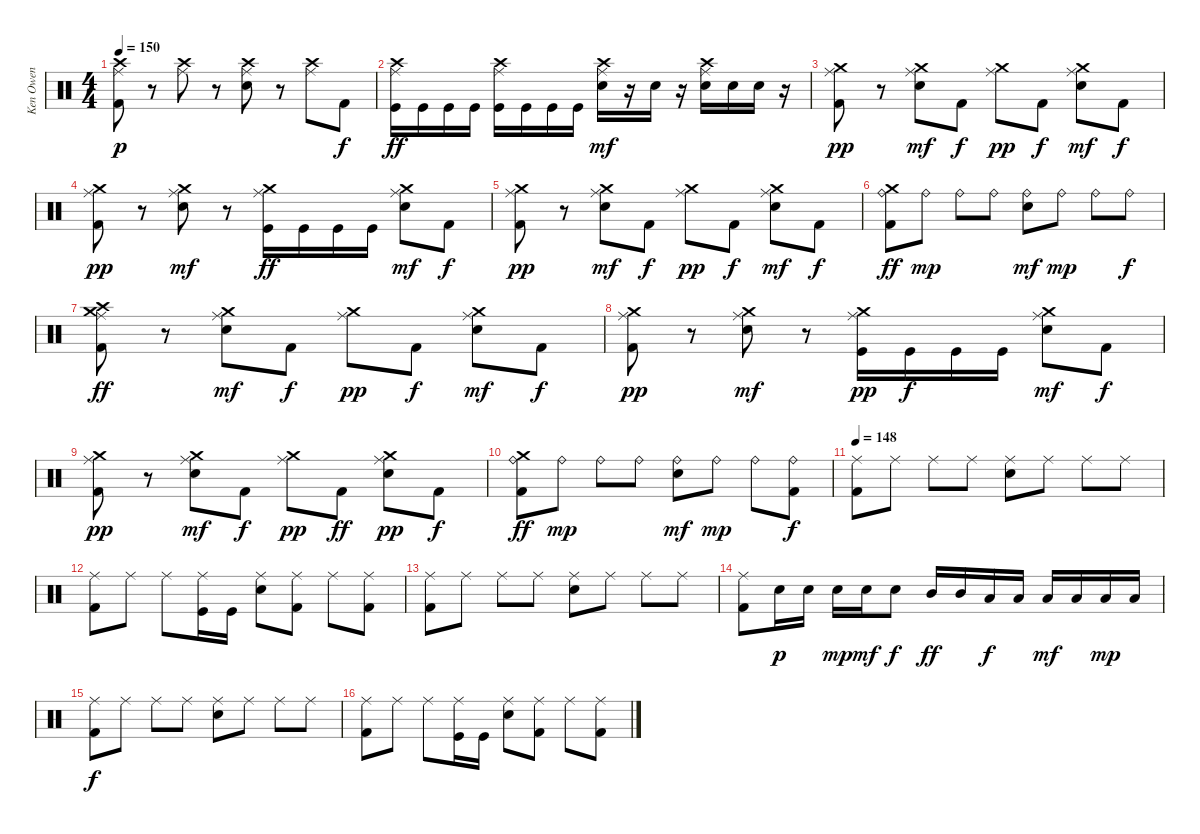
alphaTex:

\track ("Ken Owen" "Ken Owen") {instrument percussion}
\staff {score}
\articulation defaults
\ts (4 4)
\tempo 150
\clef neutral
\ks c
("Crash high (hit)" "Ride (middle)" "Kick (hit) 2").8{dy p} r.8 ("Crash high (hit)" "Ride (middle)").8 r.8 ("Crash high (hit)" "Ride (middle)" "Electric Snare (hit)").8 r.8 ("Crash high (hit)" "Ride (middle)").8 "Kick (hit) 2".8{dy f} |
("Crash high (hit)" "Ride (middle)" "Kick (hit)").16{dy ff} "Kick (hit)".16 "Kick (hit)".16 "Kick (hit)".16 ("Crash high (hit)" "Ride (middle)" "Kick (hit)").16 "Kick (hit)".16 "Kick (hit)".16 "Kick (hit)".16 ("Crash high (hit)" "Ride (middle)" "Electric Snare (hit)").16{dy mf} r.16 "Electric Snare (hit)".16 r.16 ("Crash high (hit)" "Ride (middle)" "Electric Snare (hit)").16 "Electric Snare (hit)".16 "Electric Snare (hit)".16 r.16 |
("Crash medium (hit)" "Ride (middle)" "Kick (hit) 2").8{dy pp} r.8 ("Crash medium (hit)" "Ride (middle)" "Electric Snare (hit)").8{dy mf} "Kick (hit) 2".8{dy f} ("Crash medium (hit)" "Ride (middle)").8{dy pp} "Kick (hit) 2".8{dy f} ("Crash medium (hit)" "Ride (middle)" "Electric Snare (hit)").8{dy mf} "Kick (hit) 2".8{dy f} |
("Crash medium (hit)" "Ride (middle)" "Kick (hit) 2").8{dy pp} r.8 ("Crash medium (hit)" "Ride (middle)" "Electric Snare (hit)").8{dy mf} r.8 ("Crash medium (hit)" "Ride (middle)" "Kick (hit)").16{dy ff} "Kick (hit)".16 "Kick (hit)".16 "Kick (hit)".16 ("Crash medium (hit)" "Ride (middle)" "Electric Snare (hit)").8{dy mf} "Kick (hit) 2".8{dy f} |
("Crash medium (hit)" "Ride (middle)" "Kick (hit) 2").8{dy pp} r.8 ("Crash medium (hit)" "Ride (middle)" "Electric Snare (hit)").8{dy mf} "Kick (hit) 2".8{dy f} ("Crash medium (hit)" "Ride (middle)").8{dy pp} "Kick (hit) 2".8{dy f} ("Crash medium (hit)" "Ride (middle)" "Electric Snare (hit)").8{dy mf} "Kick (hit) 2".8{dy f} |
("Ride (bell)" "Kick (hit) 2" "Crash medium (hit)").8{dy ff} "Ride (bell)".8{dy mp} "Ride (bell)".8 "Ride (bell)".8 ("Ride (bell)" "Electric Snare (hit)").8{dy mf} "Ride (bell)".8{dy mp} "Ride (bell)".8 "Ride (bell)".8{dy f} |
("Crash medium (hit)" "Ride (middle)" "Kick (hit) 2" "Crash high (hit)").8{dy ff} r.8 ("Crash medium (hit)" "Ride (middle)" "Electric Snare (hit)").8{dy mf} "Kick (hit) 2".8{dy f} ("Crash medium (hit)" "Ride (middle)").8{dy pp} "Kick (hit) 2".8{dy f} ("Crash medium (hit)" "Ride (middle)" "Electric Snare (hit)").8{dy mf} "Kick (hit) 2".8{dy f} |
("Crash medium (hit)" "Ride (middle)" "Kick (hit) 2").8{dy pp} r.8 ("Crash medium (hit)" "Ride (middle)" "Electric Snare (hit)").8{dy mf} r.8 ("Crash medium (hit)" "Ride (middle)" "Kick (hit)").16{dy pp} "Kick (hit)".16{dy f} "Kick (hit)".16 "Kick (hit)".16 ("Crash medium (hit)" "Ride (middle)" "Electric Snare (hit)").8{dy mf} "Kick (hit) 2".8{dy f} |
("Crash medium (hit)" "Ride (middle)" "Kick (hit) 2").8{dy pp} r.8 ("Crash medium (hit)" "Ride (middle)" "Electric Snare (hit)").8{dy mf} "Kick (hit) 2".8{dy f} ("Crash medium (hit)" "Ride (middle)").8{dy pp} "Kick (hit) 2".8{dy ff} ("Crash medium (hit)" "Ride (middle)" "Electric Snare (hit)").8{dy pp} "Kick (hit) 2".8{dy f} |
("Ride (bell)" "Kick (hit) 2" "Crash medium (hit)").8{dy ff} "Ride (bell)".8{dy mp} "Ride (bell)".8 "Ride (bell)".8 ("Ride (bell)" "Electric Snare (hit)").8{dy mf} "Ride (bell)".8{dy mp} "Ride (bell)".8 ("Ride (bell)" "Kick (hit) 2").8{dy f} |
\tempo 153
\tempo 148
("Ride (middle)" "Kick (hit) 2").8 "Ride (middle)".8 "Ride (middle)".8 "Ride (middle)".8 ("Ride (middle)" "Electric Snare (hit)").8 "Ride (middle)".8 "Ride (middle)".8 "Ride (middle)".8 |
("Ride (middle)" "Kick (hit) 2").8 "Ride (middle)".8 "Ride (middle)".8 ("Ride (middle)" "Kick (hit)").16 "Kick (hit)".16 ("Ride (middle)" "Electric Snare (hit)").8 ("Ride (middle)" "Kick (hit) 2").8 "Ride (middle)".8 ("Ride (middle)" "Kick (hit) 2").8 |
("Ride (middle)" "Kick (hit) 2").8 "Ride (middle)".8 "Ride (middle)".8 "Ride (middle)".8 ("Ride (middle)" "Electric Snare (hit)").8 "Ride (middle)".8 "Ride (middle)".8 "Ride (middle)".8 |
("Ride (middle)" "Kick (hit) 2").8 "Electric Snare (hit)".16{dy p balance 5} "Electric Snare (hit)".16 "Electric Snare (hit)".16{dy mp balance 6} "Electric Snare (hit)".16{dy mf} "Electric Snare (hit)".8{dy f balance 7} "Mid Tom (hit)".16{dy ff balance 9} "Mid Tom (hit)".16{balance 10} "Low Tom (hit)".16{dy f} "Low Tom (hit)".16 "Low Tom (hit)".16{dy mf balance 11} "Low Tom (hit)".16{balance 12} "Low Tom (hit)".16{dy mp balance 13} "Low Tom (hit)".16{balance 8} |
("Ride (middle)" "Kick (hit) 2").8{dy f} "Ride (middle)".8 "Ride (middle)".8 "Ride (middle)".8 ("Ride (middle)" "Electric Snare (hit)").8 "Ride (middle)".8 "Ride (middle)".8 "Ride (middle)".8 |
("Ride (middle)" "Kick (hit) 2").8 "Ride (middle)".8 "Ride (middle)".8 ("Ride (middle)" "Kick (hit)").16 "Kick (hit)".16 ("Ride (middle)" "Electric Snare (hit)").8 ("Ride (middle)" "Kick (hit) 2").8 "Ride (middle)".8 ("Ride (middle)" "Kick (hit) 2").8
